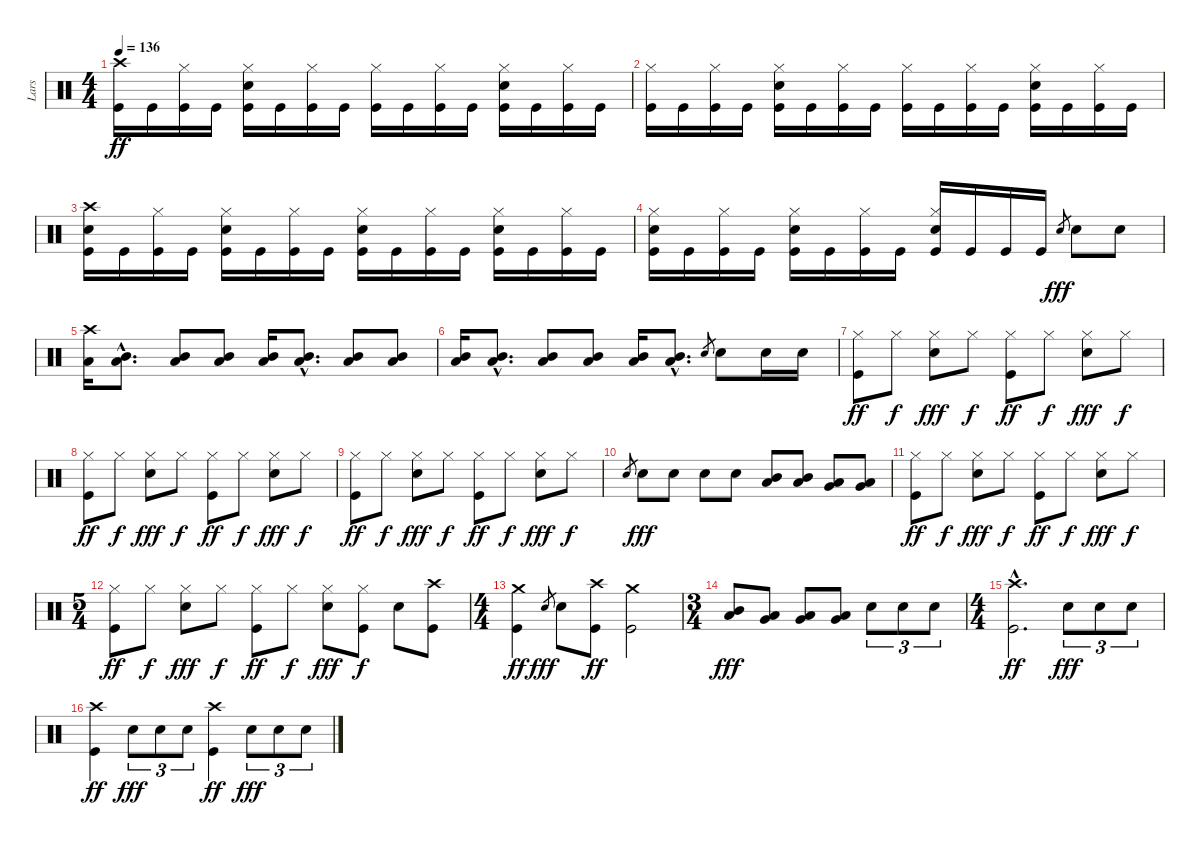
\track ("Lars" "Lars") {instrument percussion}
\staff {score}
\articulation defaults
\ts (4 4)
\tempo 136
\clef neutral
\ks c
("Crash high (hit)" "Kick (hit)").16{dy ff} "Kick (hit)".16 ("Hi-Hat (closed)" "Kick (hit)").16 "Kick (hit)".16 ("Hi-Hat (closed)" "Electric Snare (hit)" "Kick (hit)").16 "Kick (hit)".16 ("Hi-Hat (closed)" "Kick (hit)").16 "Kick (hit)".16 ("Hi-Hat (closed)" "Kick (hit)").16 "Kick (hit)".16 ("Hi-Hat (closed)" "Kick (hit)").16 "Kick (hit)".16 ("Hi-Hat (closed)" "Electric Snare (hit)" "Kick (hit)").16 "Kick (hit)".16 ("Hi-Hat (closed)" "Kick (hit)").16 "Kick (hit)".16 |
("Hi-Hat (closed)" "Kick (hit)").16 "Kick (hit)".16 ("Hi-Hat (closed)" "Kick (hit)").16 "Kick (hit)".16 ("Hi-Hat (closed)" "Electric Snare (hit)" "Kick (hit)").16 "Kick (hit)".16 ("Hi-Hat (closed)" "Kick (hit)").16 "Kick (hit)".16 ("Hi-Hat (closed)" "Kick (hit)").16 "Kick (hit)".16 ("Hi-Hat (closed)" "Kick (hit)").16 "Kick (hit)".16 ("Hi-Hat (closed)" "Electric Snare (hit)" "Kick (hit)").16 "Kick (hit)".16 ("Hi-Hat (closed)" "Kick (hit)").16 "Kick (hit)".16 |
("Crash high (hit)" "Electric Snare (hit)" "Kick (hit)").16 "Kick (hit)".16 ("Hi-Hat (closed)" "Kick (hit)").16 "Kick (hit)".16 ("Hi-Hat (closed)" "Electric Snare (hit)" "Kick (hit)").16 "Kick (hit)".16 ("Hi-Hat (closed)" "Kick (hit)").16 "Kick (hit)".16 ("Hi-Hat (closed)" "Electric Snare (hit)" "Kick (hit)").16 "Kick (hit)".16 ("Hi-Hat (closed)" "Kick (hit)").16 "Kick (hit)".16 ("Hi-Hat (closed)" "Electric Snare (hit)" "Kick (hit)").16 "Kick (hit)".16 ("Hi-Hat (closed)" "Kick (hit)").16 "Kick (hit)".16 |
("Hi-Hat (closed)" "Electric Snare (hit)" "Kick (hit)").16 "Kick (hit)".16 ("Hi-Hat (closed)" "Kick (hit)").16 "Kick (hit)".16 ("Hi-Hat (closed)" "Electric Snare (hit)" "Kick (hit)").16 "Kick (hit)".16 ("Hi-Hat (closed)" "Kick (hit)").16 "Kick (hit)".16 ("Hi-Hat (closed)" "Electric Snare (hit)" "Kick (hit)").16 "Kick (hit)".16 "Kick (hit)".16 "Kick (hit)".16 "Electric Snare (hit)".8{gr dy fff} "Electric Snare (hit)".8 "Electric Snare (hit)".8 |
("Crash high (hit)" "Low Tom (hit)").16 ("Mid Tom (hit)"{hac} "Low Tom (hit)"{hac}).8{d} ("Mid Tom (hit)" "Low Tom (hit)").8 ("Mid Tom (hit)" "Low Tom (hit)").8 ("Mid Tom (hit)" "Low Tom (hit)").16 ("Mid Tom (hit)"{hac} "Low Tom (hit)"{hac}).8{d} ("Mid Tom (hit)" "Low Tom (hit)").8 ("Mid Tom (hit)" "Low Tom (hit)").8 |
("Mid Tom (hit)" "Low Tom (hit)").16 ("Mid Tom (hit)"{hac} "Low Tom (hit)"{hac}).8{d} ("Mid Tom (hit)" "Low Tom (hit)").8 ("Mid Tom (hit)" "Low Tom (hit)").8 ("Mid Tom (hit)" "Low Tom (hit)").16 ("Mid Tom (hit)"{hac} "Low Tom (hit)"{hac}).8{d} "Electric Snare (hit)".8{gr} "Electric Snare (hit)".8 "Electric Snare (hit)".16 "Electric Snare (hit)".16 |
("Hi-Hat (closed)" "Kick (hit)").8{dy ff} "Hi-Hat (closed)".8{dy f} ("Hi-Hat (closed)" "Electric Snare (hit)").8{dy fff} "Hi-Hat (closed)".8{dy f} ("Hi-Hat (closed)" "Kick (hit)").8{dy ff} "Hi-Hat (closed)".8{dy f} ("Hi-Hat (closed)" "Electric Snare (hit)").8{dy fff} "Hi-Hat (closed)".8{dy f} |
("Hi-Hat (closed)" "Kick (hit)").8{dy ff} "Hi-Hat (closed)".8{dy f} ("Hi-Hat (closed)" "Electric Snare (hit)").8{dy fff} "Hi-Hat (closed)".8{dy f} ("Hi-Hat (closed)" "Kick (hit)").8{dy ff} "Hi-Hat (closed)".8{dy f} ("Hi-Hat (closed)" "Electric Snare (hit)").8{dy fff} "Hi-Hat (closed)".8{dy f} |
("Hi-Hat (closed)" "Kick (hit)").8{dy ff} "Hi-Hat (closed)".8{dy f} ("Hi-Hat (closed)" "Electric Snare (hit)").8{dy fff} "Hi-Hat (closed)".8{dy f} ("Hi-Hat (closed)" "Kick (hit)").8{dy ff} "Hi-Hat (closed)".8{dy f} ("Hi-Hat (closed)" "Electric Snare (hit)").8{dy fff} "Hi-Hat (closed)".8{dy f} |
"Electric Snare (hit)".8{gr} "Electric Snare (hit)".8{dy fff} "Electric Snare (hit)".8 "Electric Snare (hit)".8 "Electric Snare (hit)".8 ("Mid Tom (hit)" "Low Tom (hit)").8 ("Mid Tom (hit)" "Low Tom (hit)").8 ("Low Tom (hit)" "Very Low Tom (hit)").8 ("Low Tom (hit)" "Very Low Tom (hit)").8 |
("Hi-Hat (closed)" "Kick (hit)").8{dy ff} "Hi-Hat (closed)".8{dy f} ("Hi-Hat (closed)" "Electric Snare (hit)").8{dy fff} "Hi-Hat (closed)".8{dy f} ("Hi-Hat (closed)" "Kick (hit)").8{dy ff} "Hi-Hat (closed)".8{dy f} ("Hi-Hat (closed)" "Electric Snare (hit)").8{dy fff} "Hi-Hat (closed)".8{dy f} |
\ts (5 4)
("Hi-Hat (closed)" "Kick (hit)").8{dy ff} "Hi-Hat (closed)".8{dy f} ("Hi-Hat (closed)" "Electric Snare (hit)").8{dy fff} "Hi-Hat (closed)".8{dy f} ("Hi-Hat (closed)" "Kick (hit)").8{dy ff} "Hi-Hat (closed)".8{dy f} ("Hi-Hat (closed)" "Electric Snare (hit)").8{dy fff} ("Hi-Hat (closed)" "Kick (hit)").8{dy f} "Electric Snare (hit)".8 ("Crash high (hit)" "Kick (hit)").8 |
\ts (4 4)
("Crash medium (hit)" "Kick (hit)").4{dy ff} "Electric Snare (hit)".8{gr dy fff} "Electric Snare (hit)".8 ("Crash high (hit)" "Kick (hit)").8{dy ff} ("Crash medium (hit)" "Kick (hit)").2 |
\ts (3 4)
("Mid Tom (hit)" "Low Tom (hit)").8{dy fff} ("Low Tom (hit)" "Very Low Tom (hit)").8 ("Low Tom (hit)" "Very Low Tom (hit)").8 ("Very Low Tom (hit)" "Low Floor Tom (hit)").8 "Electric Snare (hit)".8{tu (3 2)} "Electric Snare (hit)".8{tu (3 2)} "Electric Snare (hit)".8{tu (3 2)} |
\ts (4 4)
("Crash high (hit)"{hac} "Kick (hit)"{hac}).2{d dy ff} "Electric Snare (hit)".8{tu (3 2) dy fff} "Electric Snare (hit)".8{tu (3 2)} "Electric Snare (hit)".8{tu (3 2)} |
("Crash high (hit)" "Kick (hit)").4{dy ff} "Electric Snare (hit)".8{tu (3 2) dy fff} "Electric Snare (hit)".8{tu (3 2)} "Electric Snare (hit)".8{tu (3 2)} ("Crash high (hit)" "Kick (hit)").4{dy ff} "Electric Snare (hit)".8{tu (3 2) dy fff} "Electric Snare (hit)".8{tu (3 2)} "Electric Snare (hit)".8{tu (3 2)}
